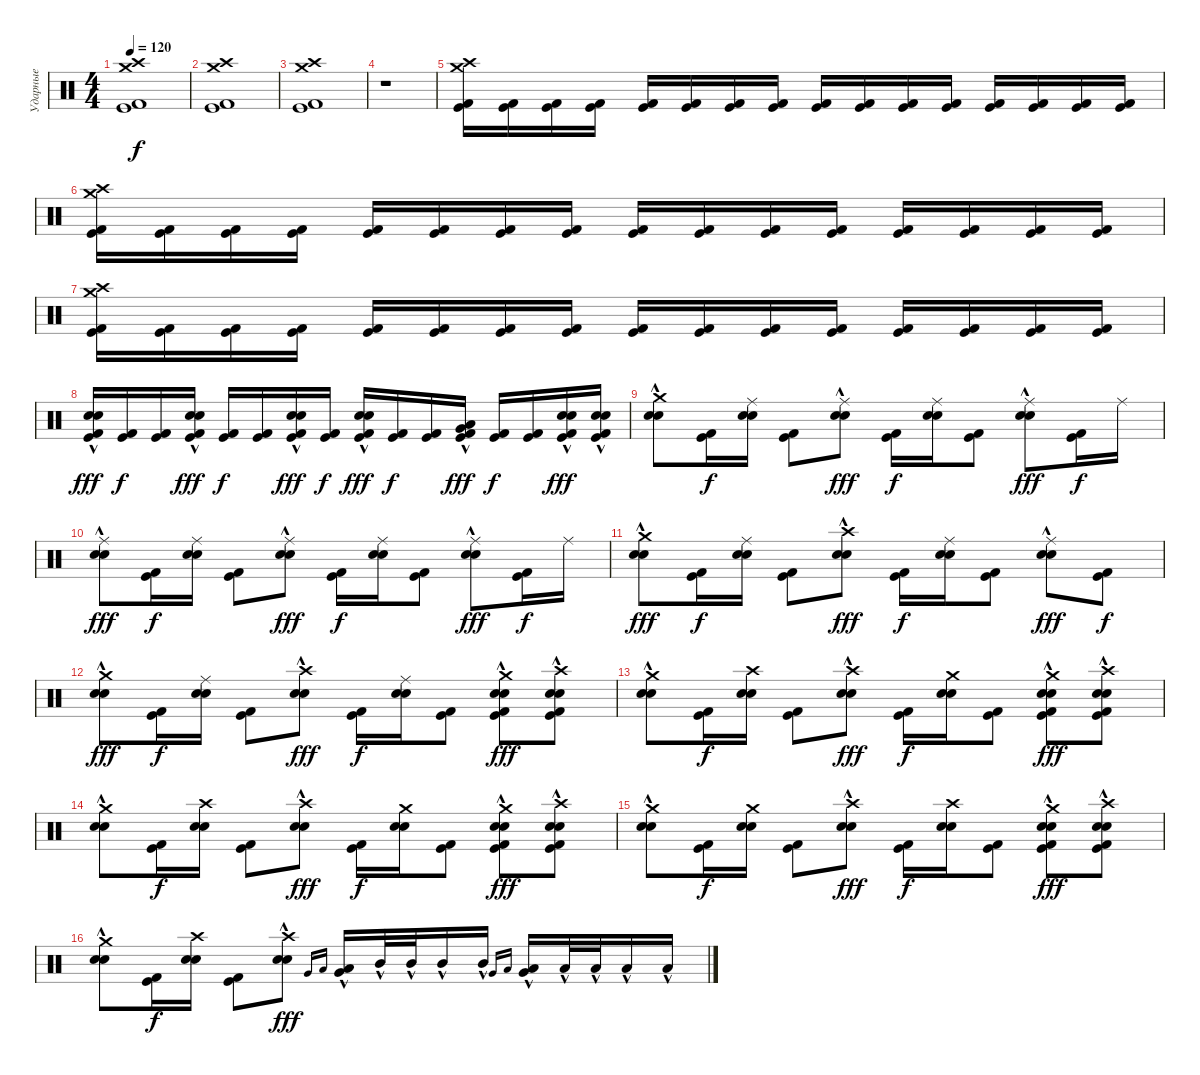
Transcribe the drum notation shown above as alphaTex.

\track ("Ударные" "Ударные") {instrument percussion}
\staff {score}
\articulation defaults
\ts (4 4)
\tempo 120
\clef neutral
\ks c
("Crash high (hit)" "Kick (hit)" "Kick (hit) 2" "Crash medium (hit)").1{dy f} |
("Crash high (hit)" "Kick (hit)" "Kick (hit) 2" "Crash medium (hit)").1 |
("Crash high (hit)" "Kick (hit)" "Kick (hit) 2" "Crash medium (hit)").1 |
r.1 |
("Crash high (hit)" "Kick (hit)" "Kick (hit) 2" "Crash medium (hit)").16 ("Kick (hit)" "Kick (hit) 2").16 ("Kick (hit)" "Kick (hit) 2").16 ("Kick (hit)" "Kick (hit) 2").16 ("Kick (hit)" "Kick (hit) 2").16 ("Kick (hit)" "Kick (hit) 2").16 ("Kick (hit)" "Kick (hit) 2").16 ("Kick (hit)" "Kick (hit) 2").16 ("Kick (hit)" "Kick (hit) 2").16 ("Kick (hit)" "Kick (hit) 2").16 ("Kick (hit)" "Kick (hit) 2").16 ("Kick (hit)" "Kick (hit) 2").16 ("Kick (hit)" "Kick (hit) 2").16 ("Kick (hit)" "Kick (hit) 2").16 ("Kick (hit)" "Kick (hit) 2").16 ("Kick (hit)" "Kick (hit) 2").16 |
("Crash high (hit)" "Kick (hit)" "Kick (hit) 2" "Crash medium (hit)").16 ("Kick (hit)" "Kick (hit) 2").16 ("Kick (hit)" "Kick (hit) 2").16 ("Kick (hit)" "Kick (hit) 2").16 ("Kick (hit)" "Kick (hit) 2").16 ("Kick (hit)" "Kick (hit) 2").16 ("Kick (hit)" "Kick (hit) 2").16 ("Kick (hit)" "Kick (hit) 2").16 ("Kick (hit)" "Kick (hit) 2").16 ("Kick (hit)" "Kick (hit) 2").16 ("Kick (hit)" "Kick (hit) 2").16 ("Kick (hit)" "Kick (hit) 2").16 ("Kick (hit)" "Kick (hit) 2").16 ("Kick (hit)" "Kick (hit) 2").16 ("Kick (hit)" "Kick (hit) 2").16 ("Kick (hit)" "Kick (hit) 2").16 |
("Crash high (hit)" "Kick (hit)" "Kick (hit) 2" "Crash medium (hit)").16 ("Kick (hit)" "Kick (hit) 2").16 ("Kick (hit)" "Kick (hit) 2").16 ("Kick (hit)" "Kick (hit) 2").16 ("Kick (hit)" "Kick (hit) 2").16 ("Kick (hit)" "Kick (hit) 2").16 ("Kick (hit)" "Kick (hit) 2").16 ("Kick (hit)" "Kick (hit) 2").16 ("Kick (hit)" "Kick (hit) 2").16 ("Kick (hit)" "Kick (hit) 2").16 ("Kick (hit)" "Kick (hit) 2").16 ("Kick (hit)" "Kick (hit) 2").16 ("Kick (hit)" "Kick (hit) 2").16 ("Kick (hit)" "Kick (hit) 2").16 ("Kick (hit)" "Kick (hit) 2").16 ("Kick (hit)" "Kick (hit) 2").16 |
("Kick (hit)" "Kick (hit) 2" "Snare (hit) 2"{hac} "Electric Snare (hit)"{hac}).16{dy fff} ("Kick (hit)" "Kick (hit) 2").16{dy f} ("Kick (hit)" "Kick (hit) 2").16 ("Kick (hit)" "Kick (hit) 2" "Snare (hit) 2"{hac} "Electric Snare (hit)"{hac}).16{dy fff} ("Kick (hit)" "Kick (hit) 2").16{dy f} ("Kick (hit)" "Kick (hit) 2").16 ("Kick (hit)" "Kick (hit) 2" "Snare (hit) 2"{hac} "Electric Snare (hit)"{hac}).16{dy fff} ("Kick (hit)" "Kick (hit) 2").16{dy f} ("Kick (hit)" "Kick (hit) 2" "Snare (hit) 2"{hac} "Electric Snare (hit)"{hac}).16{dy fff} ("Kick (hit)" "Kick (hit) 2").16{dy f} ("Kick (hit)" "Kick (hit) 2").16 ("Kick (hit)" "Kick (hit) 2" "Very Low Tom (hit)"{hac} "Low Floor Tom (hit)"{hac}).16{dy fff} ("Kick (hit)" "Kick (hit) 2").16{dy f} ("Kick (hit)" "Kick (hit) 2").16 ("Kick (hit)" "Kick (hit) 2" "Snare (hit) 2"{hac} "Electric Snare (hit)"{hac}).16{dy fff} ("Kick (hit)" "Kick (hit) 2" "Snare (hit) 2"{hac} "Electric Snare (hit)"{hac}).16 |
("Crash medium (hit)" "Snare (hit) 2"{hac} "Electric Snare (hit)"{hac}).8 ("Kick (hit)" "Kick (hit) 2").16{dy f} ("Ride (middle)" "Snare (hit) 2" "Electric Snare (hit)").16 ("Kick (hit)" "Kick (hit) 2").8 ("Ride (middle)" "Snare (hit) 2"{hac} "Electric Snare (hit)"{hac}).8{dy fff} ("Kick (hit)" "Kick (hit) 2").16{dy f} ("Ride (middle)" "Snare (hit) 2" "Electric Snare (hit)").16 ("Kick (hit)" "Kick (hit) 2").8 ("Ride (middle)" "Snare (hit) 2"{hac} "Electric Snare (hit)"{hac}).8{dy fff} ("Kick (hit)" "Kick (hit) 2").16{dy f} "Ride (middle)".16 |
("Ride (middle)" "Snare (hit) 2"{hac} "Electric Snare (hit)"{hac}).8{dy fff} ("Kick (hit)" "Kick (hit) 2").16{dy f} ("Ride (middle)" "Snare (hit) 2" "Electric Snare (hit)").16 ("Kick (hit)" "Kick (hit) 2").8 ("Ride (middle)" "Snare (hit) 2"{hac} "Electric Snare (hit)"{hac}).8{dy fff} ("Kick (hit)" "Kick (hit) 2").16{dy f} ("Ride (middle)" "Snare (hit) 2" "Electric Snare (hit)").16 ("Kick (hit)" "Kick (hit) 2").8 ("Ride (middle)" "Snare (hit) 2"{hac} "Electric Snare (hit)"{hac}).8{dy fff} ("Kick (hit)" "Kick (hit) 2").16{dy f} "Ride (middle)".16 |
("Crash medium (hit)" "Snare (hit) 2"{hac} "Electric Snare (hit)"{hac}).8{dy fff} ("Kick (hit)" "Kick (hit) 2").16{dy f} ("Ride (middle)" "Snare (hit) 2" "Electric Snare (hit)").16 ("Kick (hit)" "Kick (hit) 2").8 ("Crash high (hit)" "Snare (hit) 2"{hac} "Electric Snare (hit)"{hac}).8{dy fff} ("Kick (hit)" "Kick (hit) 2").16{dy f} ("Ride (middle)" "Snare (hit) 2" "Electric Snare (hit)").16 ("Kick (hit)" "Kick (hit) 2").8 ("Ride (middle)" "Snare (hit) 2"{hac} "Electric Snare (hit)"{hac}).8{dy fff} ("Kick (hit)" "Kick (hit) 2").8{dy f} |
("Crash medium (hit)" "Snare (hit) 2"{hac} "Electric Snare (hit)"{hac}).8{dy fff} ("Kick (hit)" "Kick (hit) 2").16{dy f} ("Ride (middle)" "Snare (hit) 2" "Electric Snare (hit)").16 ("Kick (hit)" "Kick (hit) 2").8 ("Crash high (hit)" "Snare (hit) 2"{hac} "Electric Snare (hit)"{hac}).8{dy fff} ("Kick (hit)" "Kick (hit) 2").16{dy f} ("Ride (middle)" "Snare (hit) 2" "Electric Snare (hit)").16 ("Kick (hit)" "Kick (hit) 2").8 ("Crash medium (hit)" "Kick (hit)" "Kick (hit) 2" "Snare (hit) 2"{hac} "Electric Snare (hit)"{hac}).8{dy fff} ("Crash high (hit)" "Kick (hit)" "Kick (hit) 2" "Snare (hit) 2"{hac} "Electric Snare (hit)"{hac}).8 |
("Crash medium (hit)" "Snare (hit) 2"{hac} "Electric Snare (hit)"{hac}).8 ("Kick (hit)" "Kick (hit) 2").16{dy f} ("Crash high (hit)" "Snare (hit) 2" "Electric Snare (hit)").16 ("Kick (hit)" "Kick (hit) 2").8 ("Crash high (hit)" "Snare (hit) 2"{hac} "Electric Snare (hit)"{hac}).8{dy fff} ("Kick (hit)" "Kick (hit) 2").16{dy f} ("Crash medium (hit)" "Snare (hit) 2" "Electric Snare (hit)").16 ("Kick (hit)" "Kick (hit) 2").8 ("Crash medium (hit)" "Kick (hit)" "Kick (hit) 2" "Snare (hit) 2"{hac} "Electric Snare (hit)"{hac}).8{dy fff} ("Crash high (hit)" "Kick (hit)" "Kick (hit) 2" "Snare (hit) 2"{hac} "Electric Snare (hit)"{hac}).8 |
("Crash medium (hit)" "Snare (hit) 2"{hac} "Electric Snare (hit)"{hac}).8 ("Kick (hit)" "Kick (hit) 2").16{dy f} ("Crash high (hit)" "Snare (hit) 2" "Electric Snare (hit)").16 ("Kick (hit)" "Kick (hit) 2").8 ("Crash high (hit)" "Snare (hit) 2"{hac} "Electric Snare (hit)"{hac}).8{dy fff} ("Kick (hit)" "Kick (hit) 2").16{dy f} ("Crash medium (hit)" "Snare (hit) 2" "Electric Snare (hit)").16 ("Kick (hit)" "Kick (hit) 2").8 ("Crash medium (hit)" "Kick (hit)" "Kick (hit) 2" "Snare (hit) 2"{hac} "Electric Snare (hit)"{hac}).8{dy fff} ("Crash high (hit)" "Kick (hit)" "Kick (hit) 2" "Snare (hit) 2"{hac} "Electric Snare (hit)"{hac}).8 |
("Crash medium (hit)" "Snare (hit) 2"{hac} "Electric Snare (hit)"{hac}).8 ("Kick (hit)" "Kick (hit) 2").16{dy f} ("Crash medium (hit)" "Snare (hit) 2" "Electric Snare (hit)").16 ("Kick (hit)" "Kick (hit) 2").8 ("Crash high (hit)" "Snare (hit) 2"{hac} "Electric Snare (hit)"{hac}).8{dy fff} ("Kick (hit)" "Kick (hit) 2").16{dy f} ("Crash high (hit)" "Snare (hit) 2" "Electric Snare (hit)").16 ("Kick (hit)" "Kick (hit) 2").8 ("Crash medium (hit)" "Kick (hit)" "Kick (hit) 2" "Snare (hit) 2"{hac} "Electric Snare (hit)"{hac}).8{dy fff} ("Crash high (hit)" "Kick (hit)" "Kick (hit) 2" "Snare (hit) 2"{hac} "Electric Snare (hit)"{hac}).8 |
("Crash medium (hit)" "Snare (hit) 2"{hac} "Electric Snare (hit)"{hac}).8 ("Kick (hit)" "Kick (hit) 2").16{dy f} ("Crash high (hit)" "Snare (hit) 2" "Electric Snare (hit)").16 ("Kick (hit)" "Kick (hit) 2").8 ("Crash high (hit)" "Snare (hit) 2"{hac} "Electric Snare (hit)"{hac}).8{dy fff} "Very Low Tom (hit)".16{gr onbeat} "Low Floor Tom (hit)".16{gr onbeat} ("Very Low Tom (hit)"{hac} "Low Floor Tom (hit)"{hac}).16 "Mid Tom (hit)"{hac}.32 "Mid Tom (hit)"{hac}.32 "Mid Tom (hit)"{hac}.16 "Mid Tom (hit)"{hac}.16 "Very Low Tom (hit)".16{gr onbeat} "Low Floor Tom (hit)".16{gr onbeat} ("Very Low Tom (hit)"{hac} "Low Floor Tom (hit)"{hac}).16 "Low Tom (hit)"{hac}.32 "Low Tom (hit)"{hac}.32 "Low Tom (hit)"{hac}.16 "Low Tom (hit)"{hac}.16
